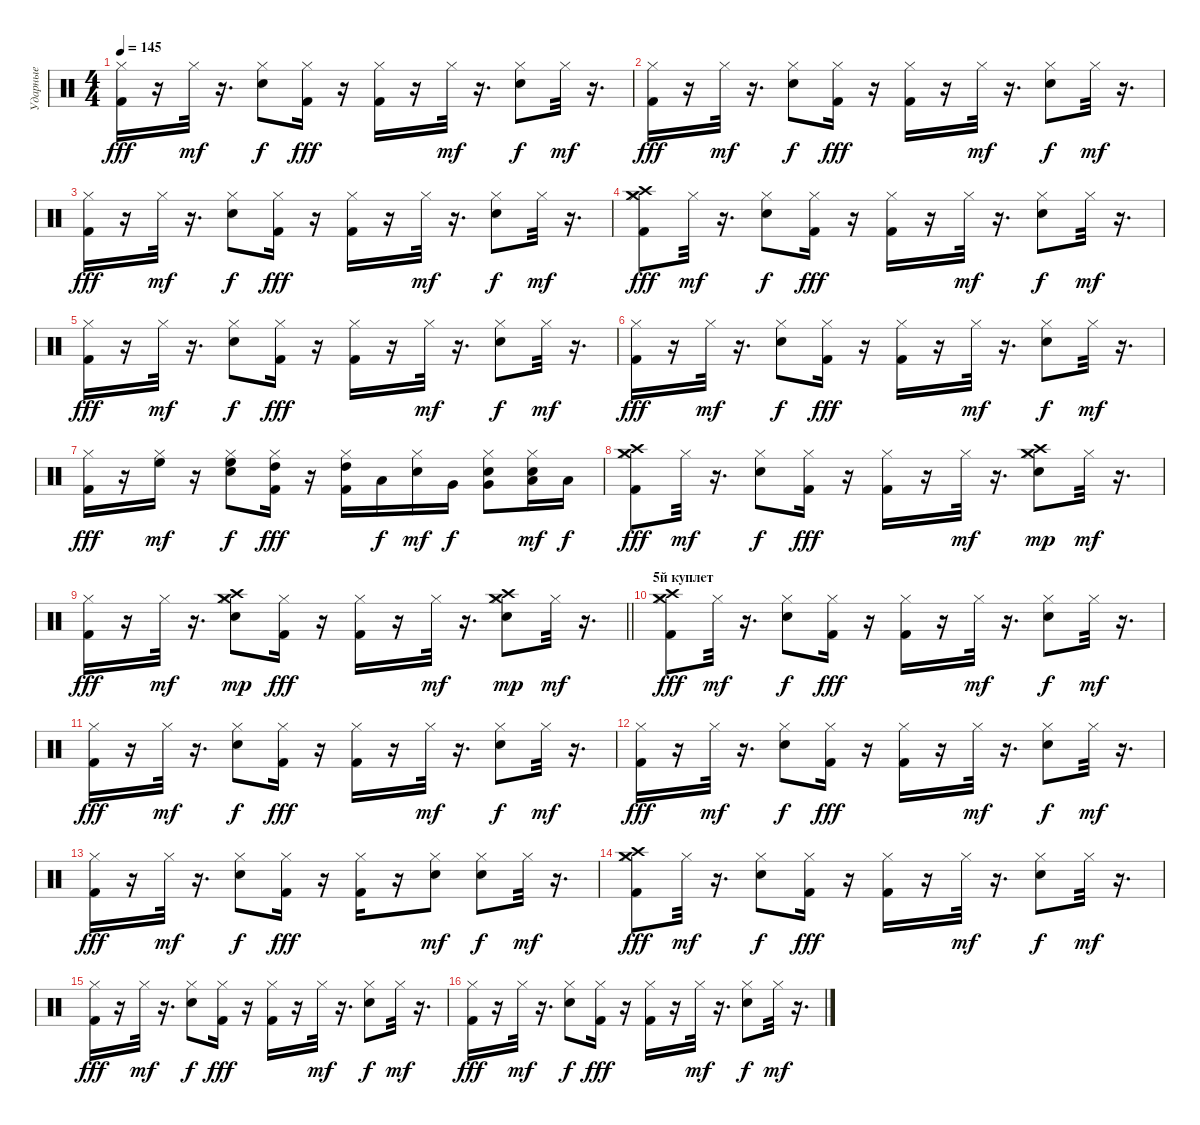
\track ("Ударные" "Ударные") {instrument percussion}
\staff {score}
\articulation defaults
\ts (4 4)
\tempo 145
\clef neutral
\ks c
("Hi-Hat (closed)" "Kick (hit) 2").16{dy fff} r.16 "Hi-Hat (closed)".32{dy mf} r.16{d} ("Snare (hit) 2" "Hi-Hat (closed)").8{dy f} ("Hi-Hat (closed)" "Kick (hit) 2").16{dy fff} r.16 ("Hi-Hat (closed)" "Kick (hit) 2").16 r.16 "Hi-Hat (closed)".32{dy mf} r.16{d} ("Snare (hit) 2" "Hi-Hat (closed)").8{dy f} "Hi-Hat (closed)".32{dy mf} r.16{d} |
("Hi-Hat (closed)" "Kick (hit) 2").16{dy fff} r.16 "Hi-Hat (closed)".32{dy mf} r.16{d} ("Snare (hit) 2" "Hi-Hat (closed)").8{dy f} ("Hi-Hat (closed)" "Kick (hit) 2").16{dy fff} r.16 ("Hi-Hat (closed)" "Kick (hit) 2").16 r.16 "Hi-Hat (closed)".32{dy mf} r.16{d} ("Snare (hit) 2" "Hi-Hat (closed)").8{dy f} "Hi-Hat (closed)".32{dy mf} r.16{d} |
("Hi-Hat (closed)" "Kick (hit) 2").16{dy fff} r.16 "Hi-Hat (closed)".32{dy mf} r.16{d} ("Snare (hit) 2" "Hi-Hat (closed)").8{dy f} ("Hi-Hat (closed)" "Kick (hit) 2").16{dy fff} r.16 ("Hi-Hat (closed)" "Kick (hit) 2").16 r.16 "Hi-Hat (closed)".32{dy mf} r.16{d} ("Snare (hit) 2" "Hi-Hat (closed)").8{dy f} "Hi-Hat (closed)".32{dy mf} r.16{d} |
("Hi-Hat (closed)" "Crash high (hit)" "Crash medium (hit)" "Kick (hit) 2").8{dy fff} "Hi-Hat (closed)".32{dy mf} r.16{d} ("Snare (hit) 2" "Hi-Hat (closed)").8{dy f} ("Hi-Hat (closed)" "Kick (hit) 2").16{dy fff} r.16 ("Hi-Hat (closed)" "Kick (hit) 2").16 r.16 "Hi-Hat (closed)".32{dy mf} r.16{d} ("Snare (hit) 2" "Hi-Hat (closed)").8{dy f} "Hi-Hat (closed)".32{dy mf} r.16{d} |
("Hi-Hat (closed)" "Kick (hit) 2").16{dy fff} r.16 "Hi-Hat (closed)".32{dy mf} r.16{d} ("Snare (hit) 2" "Hi-Hat (closed)").8{dy f} ("Hi-Hat (closed)" "Kick (hit) 2").16{dy fff} r.16 ("Hi-Hat (closed)" "Kick (hit) 2").16 r.16 "Hi-Hat (closed)".32{dy mf} r.16{d} ("Snare (hit) 2" "Hi-Hat (closed)").8{dy f} "Hi-Hat (closed)".32{dy mf} r.16{d} |
("Hi-Hat (closed)" "Kick (hit) 2").16{dy fff} r.16 "Hi-Hat (closed)".32{dy mf} r.16{d} ("Snare (hit) 2" "Hi-Hat (closed)").8{dy f} ("Hi-Hat (closed)" "Kick (hit) 2").16{dy fff} r.16 ("Hi-Hat (closed)" "Kick (hit) 2").16 r.16 "Hi-Hat (closed)".32{dy mf} r.16{d} ("Snare (hit) 2" "Hi-Hat (closed)").8{dy f} "Hi-Hat (closed)".32{dy mf} r.16{d} |
("Hi-Hat (closed)" "Kick (hit) 2").16{dy fff} r.16 ("High Floor Tom (hit)" "Hi-Hat (closed)").16{dy mf} r.16 ("High Floor Tom (hit)" "Snare (hit) 2" "Hi-Hat (closed)").8{dy f} ("High Tom (hit)" "Hi-Hat (closed)" "Kick (hit) 2").16{dy fff} r.16 ("High Tom (hit)" "Hi-Hat (closed)" "Kick (hit) 2").16 "Low Tom (hit)".16{dy f} ("Snare (hit) 2" "Hi-Hat (closed)").16{dy mf} "Very Low Tom (hit)".16{dy f} ("Very Low Tom (hit)" "Snare (hit) 2" "Hi-Hat (closed)").8 ("Low Floor Tom (hit)" "Snare (hit) 2" "Hi-Hat (closed)").16{dy mf} "Low Floor Tom (hit)".16{dy f} |
("Hi-Hat (closed)" "Crash high (hit)" "Crash medium (hit)" "Kick (hit) 2").8{dy fff} "Hi-Hat (closed)".32{dy mf} r.16{d} ("Snare (hit) 2" "Hi-Hat (closed)").8{dy f} ("Hi-Hat (closed)" "Kick (hit) 2").16{dy fff} r.16 ("Hi-Hat (closed)" "Kick (hit) 2").16 r.16 "Hi-Hat (closed)".32{dy mf} r.16{d} ("Snare (hit) 2" "Hi-Hat (closed)" "Crash high (hit)" "Crash medium (hit)").8{dy mp} "Hi-Hat (closed)".32{dy mf} r.16{d} |
\barLineRight lightlight
("Hi-Hat (closed)" "Kick (hit) 2").16{dy fff} r.16 "Hi-Hat (closed)".32{dy mf} r.16{d} ("Snare (hit) 2" "Hi-Hat (closed)" "Crash high (hit)" "Crash medium (hit)").8{dy mp} ("Hi-Hat (closed)" "Kick (hit) 2").16{dy fff} r.16 ("Hi-Hat (closed)" "Kick (hit) 2").16 r.16 "Hi-Hat (closed)".32{dy mf} r.16{d} ("Snare (hit) 2" "Hi-Hat (closed)" "Crash high (hit)" "Crash medium (hit)").8{dy mp} "Hi-Hat (closed)".32{dy mf} r.16{d} |
\section ("" "5й куплет")
("Hi-Hat (closed)" "Crash high (hit)" "Crash medium (hit)" "Kick (hit) 2").8{dy fff} "Hi-Hat (closed)".32{dy mf} r.16{d} ("Snare (hit) 2" "Hi-Hat (closed)").8{dy f} ("Hi-Hat (closed)" "Kick (hit) 2").16{dy fff} r.16 ("Hi-Hat (closed)" "Kick (hit) 2").16 r.16 "Hi-Hat (closed)".32{dy mf} r.16{d} ("Snare (hit) 2" "Hi-Hat (closed)").8{dy f} "Hi-Hat (closed)".32{dy mf} r.16{d} |
("Hi-Hat (closed)" "Kick (hit) 2").16{dy fff} r.16 "Hi-Hat (closed)".32{dy mf} r.16{d} ("Snare (hit) 2" "Hi-Hat (closed)").8{dy f} ("Hi-Hat (closed)" "Kick (hit) 2").16{dy fff} r.16 ("Hi-Hat (closed)" "Kick (hit) 2").16 r.16 "Hi-Hat (closed)".32{dy mf} r.16{d} ("Snare (hit) 2" "Hi-Hat (closed)").8{dy f} "Hi-Hat (closed)".32{dy mf} r.16{d} |
("Hi-Hat (closed)" "Kick (hit) 2").16{dy fff} r.16 "Hi-Hat (closed)".32{dy mf} r.16{d} ("Snare (hit) 2" "Hi-Hat (closed)").8{dy f} ("Hi-Hat (closed)" "Kick (hit) 2").16{dy fff} r.16 ("Hi-Hat (closed)" "Kick (hit) 2").16 r.16 "Hi-Hat (closed)".32{dy mf} r.16{d} ("Snare (hit) 2" "Hi-Hat (closed)").8{dy f} "Hi-Hat (closed)".32{dy mf} r.16{d} |
("Hi-Hat (closed)" "Kick (hit) 2").16{dy fff} r.16 "Hi-Hat (closed)".32{dy mf} r.16{d} ("Snare (hit) 2" "Hi-Hat (closed)").8{dy f} ("Hi-Hat (closed)" "Kick (hit) 2").16{dy fff} r.16 ("Hi-Hat (closed)" "Kick (hit) 2").16 r.16 ("Snare (hit) 2" "Hi-Hat (closed)").8{dy mf} ("Snare (hit) 2" "Hi-Hat (closed)").8{dy f} "Hi-Hat (closed)".32{dy mf} r.16{d} |
("Hi-Hat (closed)" "Crash high (hit)" "Crash medium (hit)" "Kick (hit) 2").8{dy fff} "Hi-Hat (closed)".32{dy mf} r.16{d} ("Snare (hit) 2" "Hi-Hat (closed)").8{dy f} ("Hi-Hat (closed)" "Kick (hit) 2").16{dy fff} r.16 ("Hi-Hat (closed)" "Kick (hit) 2").16 r.16 "Hi-Hat (closed)".32{dy mf} r.16{d} ("Snare (hit) 2" "Hi-Hat (closed)").8{dy f} "Hi-Hat (closed)".32{dy mf} r.16{d} |
("Hi-Hat (closed)" "Kick (hit) 2").16{dy fff} r.16 "Hi-Hat (closed)".32{dy mf} r.16{d} ("Snare (hit) 2" "Hi-Hat (closed)").8{dy f} ("Hi-Hat (closed)" "Kick (hit) 2").16{dy fff} r.16 ("Hi-Hat (closed)" "Kick (hit) 2").16 r.16 "Hi-Hat (closed)".32{dy mf} r.16{d} ("Snare (hit) 2" "Hi-Hat (closed)").8{dy f} "Hi-Hat (closed)".32{dy mf} r.16{d} |
("Hi-Hat (closed)" "Kick (hit) 2").16{dy fff} r.16 "Hi-Hat (closed)".32{dy mf} r.16{d} ("Snare (hit) 2" "Hi-Hat (closed)").8{dy f} ("Hi-Hat (closed)" "Kick (hit) 2").16{dy fff} r.16 ("Hi-Hat (closed)" "Kick (hit) 2").16 r.16 "Hi-Hat (closed)".32{dy mf} r.16{d} ("Snare (hit) 2" "Hi-Hat (closed)").8{dy f} "Hi-Hat (closed)".32{dy mf} r.16{d}
